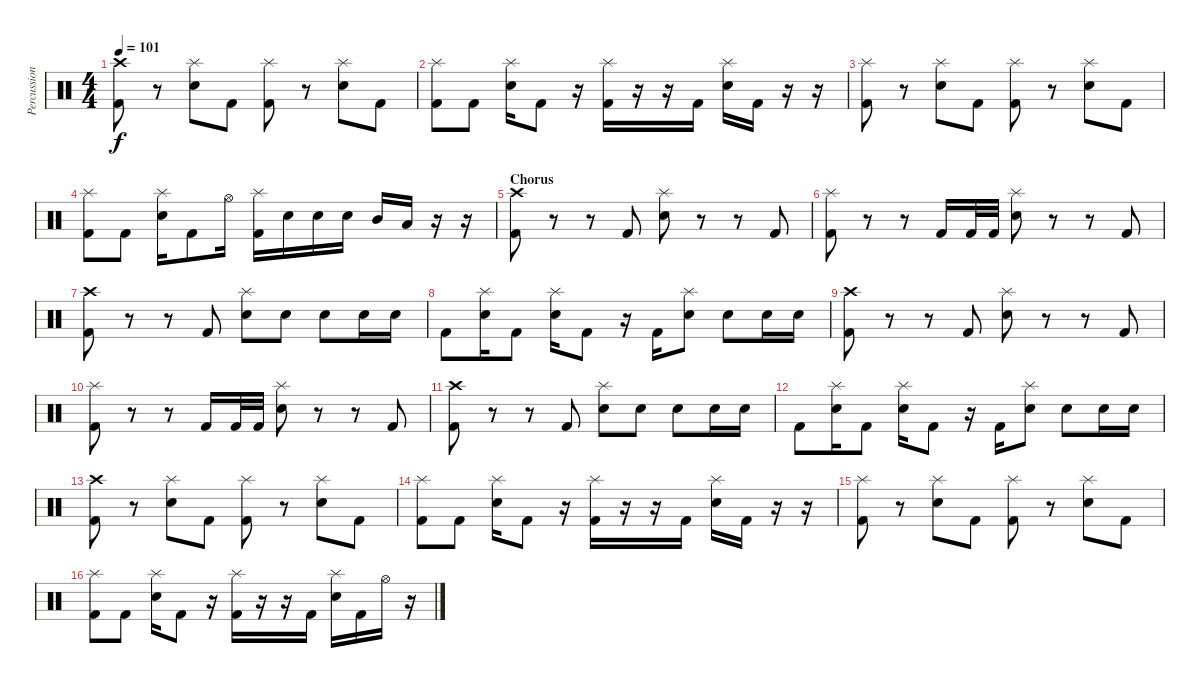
\track ("Percussion" "Percussion") {instrument percussion}
\staff {score}
\articulation defaults
\ts (4 4)
\tempo 101
\clef neutral
\ks c
("Crash high (hit)" "Kick (hit) 2").8{dy f} r.8 ("Splash (hit)" "Electric Snare (hit)").8 "Kick (hit) 2".8 ("Splash (hit)" "Kick (hit) 2").8 r.8 ("Splash (hit)" "Electric Snare (hit)").8 "Kick (hit) 2".8 |
("Splash (hit)" "Kick (hit) 2").8 "Kick (hit) 2".8 ("Splash (hit)" "Electric Snare (hit)").16 "Kick (hit) 2".8 r.16 ("Splash (hit)" "Kick (hit) 2").16 r.16 r.16 "Kick (hit) 2".16 ("Splash (hit)" "Electric Snare (hit)").16 "Kick (hit) 2".16 r.16 r.16 |
("Splash (hit)" "Kick (hit) 2").8 r.8 ("Splash (hit)" "Electric Snare (hit)").8 "Kick (hit) 2".8 ("Splash (hit)" "Kick (hit) 2").8 r.8 ("Splash (hit)" "Electric Snare (hit)").8 "Kick (hit) 2".8 |
("Splash (hit)" "Kick (hit) 2").8 "Kick (hit) 2".8 ("Splash (hit)" "Electric Snare (hit)").16 "Kick (hit) 2".8 "Hi-Hat (open)".16 ("Splash (hit)" "Kick (hit) 2").16 "Electric Snare (hit)".16 "Electric Snare (hit)".16 "Electric Snare (hit)".16 "Mid Tom (hit)".16 "Low Tom (hit)".16 r.16 r.16 |
\section ("" "Chorus")
("Crash high (hit)" "Kick (hit) 2").8 r.8 r.8 "Kick (hit) 2".8 ("Splash (hit)" "Electric Snare (hit)").8 r.8 r.8 "Kick (hit) 2".8 |
("Splash (hit)" "Kick (hit) 2").8 r.8 r.8 "Kick (hit) 2".16 "Kick (hit) 2".32 "Kick (hit) 2".32 ("Splash (hit)" "Electric Snare (hit)").8 r.8 r.8 "Kick (hit) 2".8 |
("Crash high (hit)" "Kick (hit) 2").8 r.8 r.8 "Kick (hit) 2".8 ("Splash (hit)" "Electric Snare (hit)").8 "Electric Snare (hit)".8 "Electric Snare (hit)".8 "Electric Snare (hit)".16 "Electric Snare (hit)".16 |
"Kick (hit) 2".8 ("Splash (hit)" "Electric Snare (hit)").16 "Kick (hit) 2".8 ("Splash (hit)" "Electric Snare (hit)").16 "Kick (hit) 2".8 r.16 "Kick (hit) 2".16 ("Splash (hit)" "Electric Snare (hit)").8 "Electric Snare (hit)".8 "Electric Snare (hit)".16 "Electric Snare (hit)".16 |
("Crash high (hit)" "Kick (hit) 2").8 r.8 r.8 "Kick (hit) 2".8 ("Splash (hit)" "Electric Snare (hit)").8 r.8 r.8 "Kick (hit) 2".8 |
("Splash (hit)" "Kick (hit) 2").8 r.8 r.8 "Kick (hit) 2".16 "Kick (hit) 2".32 "Kick (hit) 2".32 ("Splash (hit)" "Electric Snare (hit)").8 r.8 r.8 "Kick (hit) 2".8 |
("Crash high (hit)" "Kick (hit) 2").8 r.8 r.8 "Kick (hit) 2".8 ("Splash (hit)" "Electric Snare (hit)").8 "Electric Snare (hit)".8 "Electric Snare (hit)".8 "Electric Snare (hit)".16 "Electric Snare (hit)".16 |
"Kick (hit) 2".8 ("Splash (hit)" "Electric Snare (hit)").16 "Kick (hit) 2".8 ("Splash (hit)" "Electric Snare (hit)").16 "Kick (hit) 2".8 r.16 "Kick (hit) 2".16 ("Splash (hit)" "Electric Snare (hit)").8 "Electric Snare (hit)".8 "Electric Snare (hit)".16 "Electric Snare (hit)".16 |
("Crash high (hit)" "Kick (hit) 2").8 r.8 ("Splash (hit)" "Electric Snare (hit)").8 "Kick (hit) 2".8 ("Splash (hit)" "Kick (hit) 2").8 r.8 ("Splash (hit)" "Electric Snare (hit)").8 "Kick (hit) 2".8 |
("Splash (hit)" "Kick (hit) 2").8 "Kick (hit) 2".8 ("Splash (hit)" "Electric Snare (hit)").16 "Kick (hit) 2".8 r.16 ("Splash (hit)" "Kick (hit) 2").16 r.16 r.16 "Kick (hit) 2".16 ("Splash (hit)" "Electric Snare (hit)").16 "Kick (hit) 2".16 r.16 r.16 |
("Splash (hit)" "Kick (hit) 2").8 r.8 ("Splash (hit)" "Electric Snare (hit)").8 "Kick (hit) 2".8 ("Splash (hit)" "Kick (hit) 2").8 r.8 ("Splash (hit)" "Electric Snare (hit)").8 "Kick (hit) 2".8 |
("Splash (hit)" "Kick (hit) 2").8 "Kick (hit) 2".8 ("Splash (hit)" "Electric Snare (hit)").16 "Kick (hit) 2".8 r.16 ("Splash (hit)" "Kick (hit) 2").16 r.16 r.16 "Kick (hit) 2".16 ("Splash (hit)" "Electric Snare (hit)").16 "Kick (hit) 2".16 "Hi-Hat (open)".16 r.16
